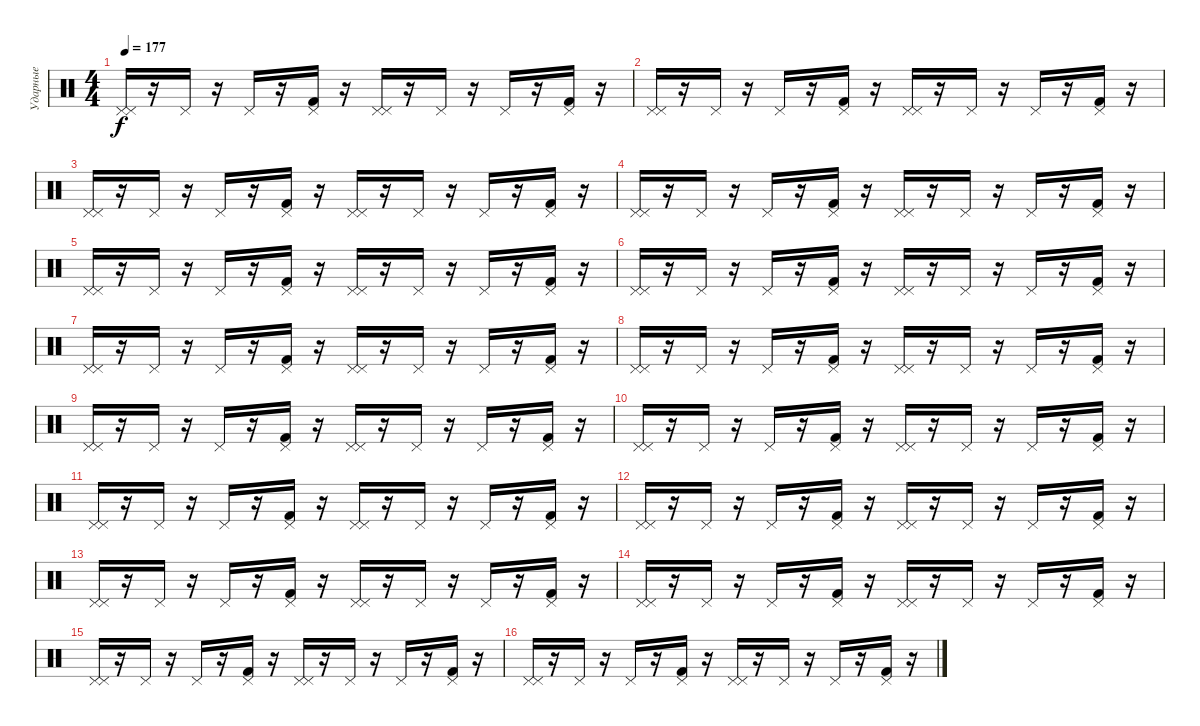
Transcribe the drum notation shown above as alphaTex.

\track ("Ударные" "Ударные") {instrument percussion}
\staff {score}
\articulation defaults
\ts (4 4)
\tempo 177
\clef neutral
\ks c
("Pedal Hi-Hat (hit)" "Pedal Hi-Hat (hit)").16{dy f} r.16 "Pedal Hi-Hat (hit)".16 r.16 "Pedal Hi-Hat (hit)".16 r.16 ("Kick (hit) 2" "Pedal Hi-Hat (hit)").16 r.16 ("Pedal Hi-Hat (hit)" "Pedal Hi-Hat (hit)").16 r.16 "Pedal Hi-Hat (hit)".16 r.16 "Pedal Hi-Hat (hit)".16 r.16 ("Kick (hit) 2" "Pedal Hi-Hat (hit)").16 r.16 |
("Pedal Hi-Hat (hit)" "Pedal Hi-Hat (hit)").16 r.16 "Pedal Hi-Hat (hit)".16 r.16 "Pedal Hi-Hat (hit)".16 r.16 ("Kick (hit) 2" "Pedal Hi-Hat (hit)").16 r.16 ("Pedal Hi-Hat (hit)" "Pedal Hi-Hat (hit)").16 r.16 "Pedal Hi-Hat (hit)".16 r.16 "Pedal Hi-Hat (hit)".16 r.16 ("Kick (hit) 2" "Pedal Hi-Hat (hit)").16 r.16 |
("Pedal Hi-Hat (hit)" "Pedal Hi-Hat (hit)").16 r.16 "Pedal Hi-Hat (hit)".16 r.16 "Pedal Hi-Hat (hit)".16 r.16 ("Kick (hit) 2" "Pedal Hi-Hat (hit)").16 r.16 ("Pedal Hi-Hat (hit)" "Pedal Hi-Hat (hit)").16 r.16 "Pedal Hi-Hat (hit)".16 r.16 "Pedal Hi-Hat (hit)".16 r.16 ("Kick (hit) 2" "Pedal Hi-Hat (hit)").16 r.16 |
("Pedal Hi-Hat (hit)" "Pedal Hi-Hat (hit)").16 r.16 "Pedal Hi-Hat (hit)".16 r.16 "Pedal Hi-Hat (hit)".16 r.16 ("Kick (hit) 2" "Pedal Hi-Hat (hit)").16 r.16 ("Pedal Hi-Hat (hit)" "Pedal Hi-Hat (hit)").16 r.16 "Pedal Hi-Hat (hit)".16 r.16 "Pedal Hi-Hat (hit)".16 r.16 ("Kick (hit) 2" "Pedal Hi-Hat (hit)").16 r.16 |
("Pedal Hi-Hat (hit)" "Pedal Hi-Hat (hit)").16 r.16 "Pedal Hi-Hat (hit)".16 r.16 "Pedal Hi-Hat (hit)".16 r.16 ("Kick (hit) 2" "Pedal Hi-Hat (hit)").16 r.16 ("Pedal Hi-Hat (hit)" "Pedal Hi-Hat (hit)").16 r.16 "Pedal Hi-Hat (hit)".16 r.16 "Pedal Hi-Hat (hit)".16 r.16 ("Kick (hit) 2" "Pedal Hi-Hat (hit)").16 r.16 |
("Pedal Hi-Hat (hit)" "Pedal Hi-Hat (hit)").16 r.16 "Pedal Hi-Hat (hit)".16 r.16 "Pedal Hi-Hat (hit)".16 r.16 ("Kick (hit) 2" "Pedal Hi-Hat (hit)").16 r.16 ("Pedal Hi-Hat (hit)" "Pedal Hi-Hat (hit)").16 r.16 "Pedal Hi-Hat (hit)".16 r.16 "Pedal Hi-Hat (hit)".16 r.16 ("Kick (hit) 2" "Pedal Hi-Hat (hit)").16 r.16 |
("Pedal Hi-Hat (hit)" "Pedal Hi-Hat (hit)").16 r.16 "Pedal Hi-Hat (hit)".16 r.16 "Pedal Hi-Hat (hit)".16 r.16 ("Kick (hit) 2" "Pedal Hi-Hat (hit)").16 r.16 ("Pedal Hi-Hat (hit)" "Pedal Hi-Hat (hit)").16 r.16 "Pedal Hi-Hat (hit)".16 r.16 "Pedal Hi-Hat (hit)".16 r.16 ("Kick (hit) 2" "Pedal Hi-Hat (hit)").16 r.16 |
("Pedal Hi-Hat (hit)" "Pedal Hi-Hat (hit)").16 r.16 "Pedal Hi-Hat (hit)".16 r.16 "Pedal Hi-Hat (hit)".16 r.16 ("Kick (hit) 2" "Pedal Hi-Hat (hit)").16 r.16 ("Pedal Hi-Hat (hit)" "Pedal Hi-Hat (hit)").16 r.16 "Pedal Hi-Hat (hit)".16 r.16 "Pedal Hi-Hat (hit)".16 r.16 ("Kick (hit) 2" "Pedal Hi-Hat (hit)").16 r.16 |
("Pedal Hi-Hat (hit)" "Pedal Hi-Hat (hit)").16 r.16 "Pedal Hi-Hat (hit)".16 r.16 "Pedal Hi-Hat (hit)".16 r.16 ("Kick (hit) 2" "Pedal Hi-Hat (hit)").16 r.16 ("Pedal Hi-Hat (hit)" "Pedal Hi-Hat (hit)").16 r.16 "Pedal Hi-Hat (hit)".16 r.16 "Pedal Hi-Hat (hit)".16 r.16 ("Kick (hit) 2" "Pedal Hi-Hat (hit)").16 r.16 |
("Pedal Hi-Hat (hit)" "Pedal Hi-Hat (hit)").16 r.16 "Pedal Hi-Hat (hit)".16 r.16 "Pedal Hi-Hat (hit)".16 r.16 ("Kick (hit) 2" "Pedal Hi-Hat (hit)").16 r.16 ("Pedal Hi-Hat (hit)" "Pedal Hi-Hat (hit)").16 r.16 "Pedal Hi-Hat (hit)".16 r.16 "Pedal Hi-Hat (hit)".16 r.16 ("Kick (hit) 2" "Pedal Hi-Hat (hit)").16 r.16 |
("Pedal Hi-Hat (hit)" "Pedal Hi-Hat (hit)").16 r.16 "Pedal Hi-Hat (hit)".16 r.16 "Pedal Hi-Hat (hit)".16 r.16 ("Kick (hit) 2" "Pedal Hi-Hat (hit)").16 r.16 ("Pedal Hi-Hat (hit)" "Pedal Hi-Hat (hit)").16 r.16 "Pedal Hi-Hat (hit)".16 r.16 "Pedal Hi-Hat (hit)".16 r.16 ("Kick (hit) 2" "Pedal Hi-Hat (hit)").16 r.16 |
("Pedal Hi-Hat (hit)" "Pedal Hi-Hat (hit)").16 r.16 "Pedal Hi-Hat (hit)".16 r.16 "Pedal Hi-Hat (hit)".16 r.16 ("Kick (hit) 2" "Pedal Hi-Hat (hit)").16 r.16 ("Pedal Hi-Hat (hit)" "Pedal Hi-Hat (hit)").16 r.16 "Pedal Hi-Hat (hit)".16 r.16 "Pedal Hi-Hat (hit)".16 r.16 ("Kick (hit) 2" "Pedal Hi-Hat (hit)").16 r.16 |
("Pedal Hi-Hat (hit)" "Pedal Hi-Hat (hit)").16 r.16 "Pedal Hi-Hat (hit)".16 r.16 "Pedal Hi-Hat (hit)".16 r.16 ("Kick (hit) 2" "Pedal Hi-Hat (hit)").16 r.16 ("Pedal Hi-Hat (hit)" "Pedal Hi-Hat (hit)").16 r.16 "Pedal Hi-Hat (hit)".16 r.16 "Pedal Hi-Hat (hit)".16 r.16 ("Kick (hit) 2" "Pedal Hi-Hat (hit)").16 r.16 |
("Pedal Hi-Hat (hit)" "Pedal Hi-Hat (hit)").16 r.16 "Pedal Hi-Hat (hit)".16 r.16 "Pedal Hi-Hat (hit)".16 r.16 ("Kick (hit) 2" "Pedal Hi-Hat (hit)").16 r.16 ("Pedal Hi-Hat (hit)" "Pedal Hi-Hat (hit)").16 r.16 "Pedal Hi-Hat (hit)".16 r.16 "Pedal Hi-Hat (hit)".16 r.16 ("Kick (hit) 2" "Pedal Hi-Hat (hit)").16 r.16 |
("Pedal Hi-Hat (hit)" "Pedal Hi-Hat (hit)").16 r.16 "Pedal Hi-Hat (hit)".16 r.16 "Pedal Hi-Hat (hit)".16 r.16 ("Kick (hit) 2" "Pedal Hi-Hat (hit)").16 r.16 ("Pedal Hi-Hat (hit)" "Pedal Hi-Hat (hit)").16 r.16 "Pedal Hi-Hat (hit)".16 r.16 "Pedal Hi-Hat (hit)".16 r.16 ("Kick (hit) 2" "Pedal Hi-Hat (hit)").16 r.16 |
("Pedal Hi-Hat (hit)" "Pedal Hi-Hat (hit)").16 r.16 "Pedal Hi-Hat (hit)".16 r.16 "Pedal Hi-Hat (hit)".16 r.16 ("Kick (hit) 2" "Pedal Hi-Hat (hit)").16 r.16 ("Pedal Hi-Hat (hit)" "Pedal Hi-Hat (hit)").16 r.16 "Pedal Hi-Hat (hit)".16 r.16 "Pedal Hi-Hat (hit)".16 r.16 ("Kick (hit) 2" "Pedal Hi-Hat (hit)").16 r.16
